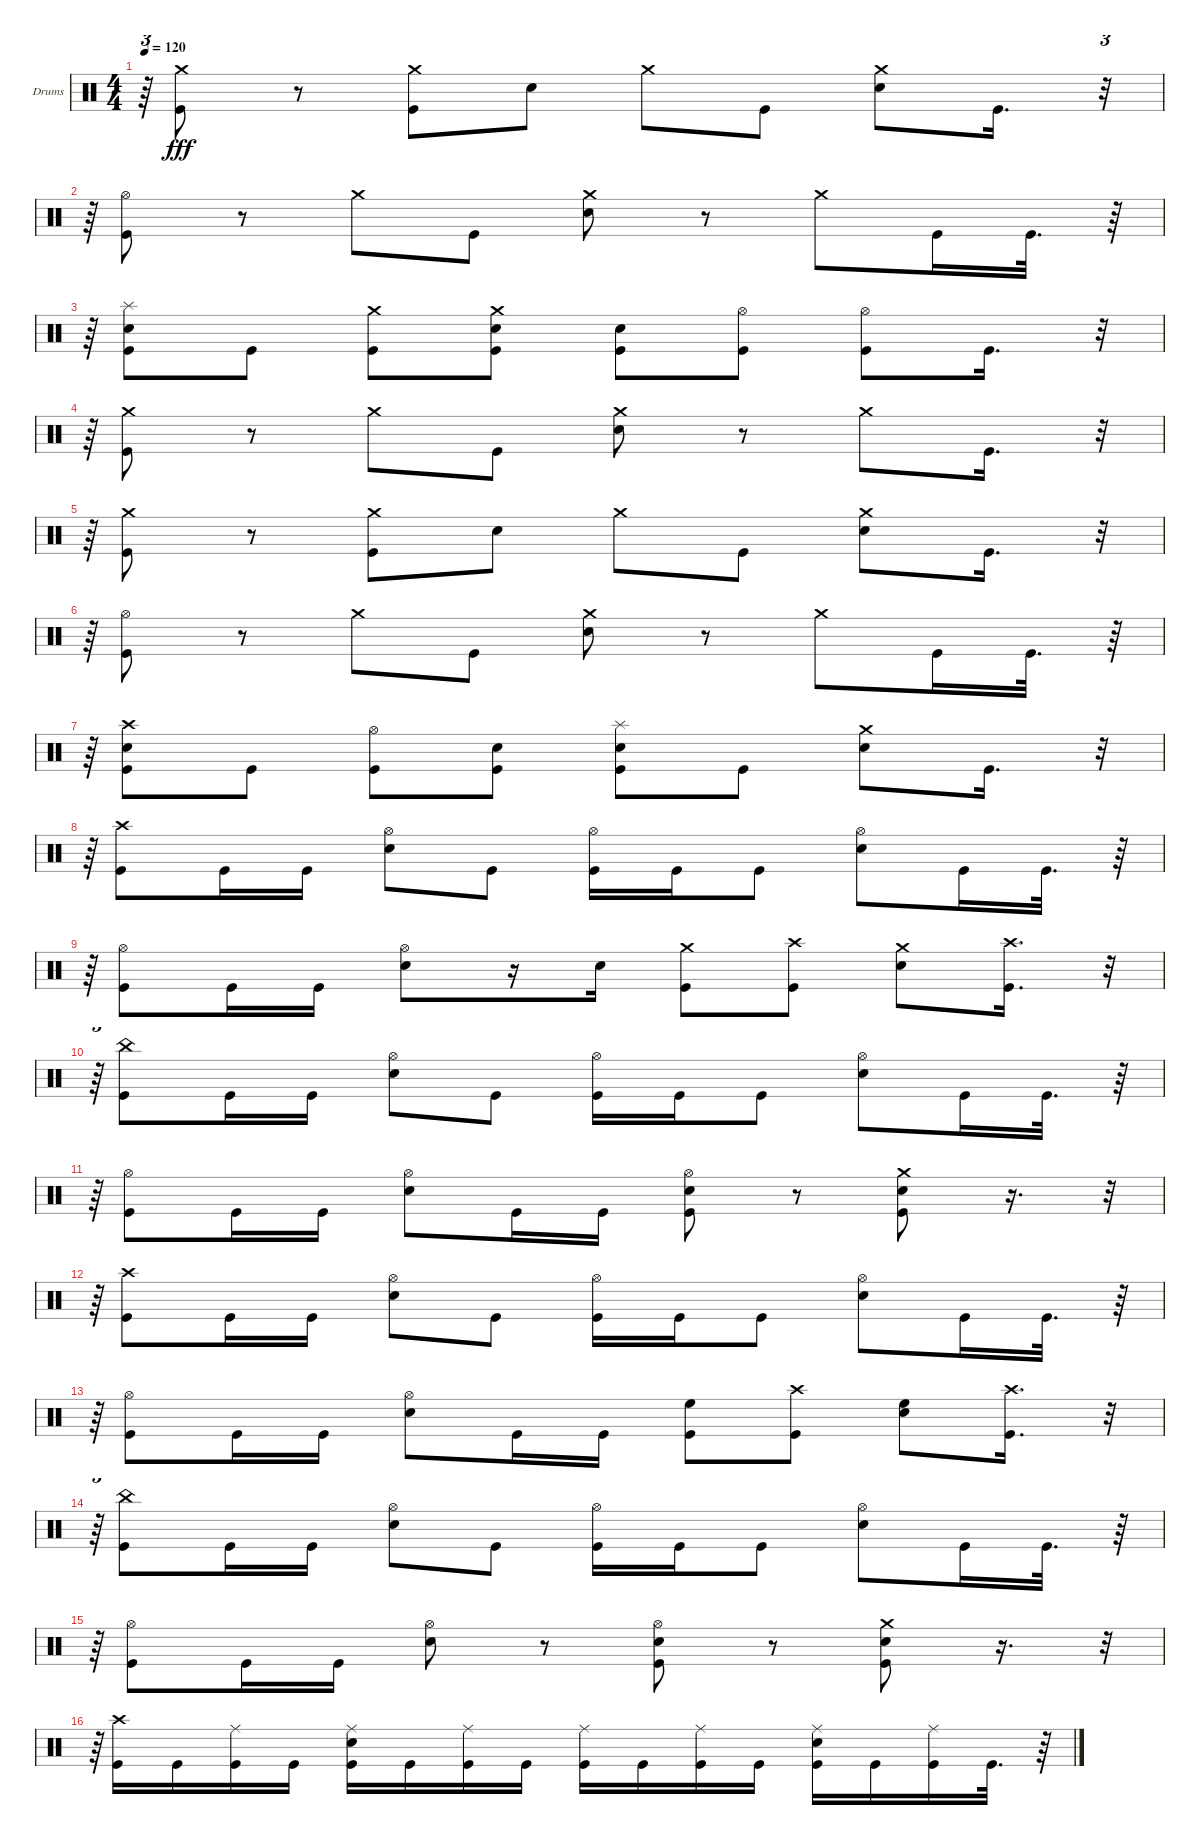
\bracketExtendMode groupsimilarinstruments
\firstSystemTrackNameOrientation horizontal
\otherSystemsTrackNameOrientation horizontal
\track ("Drums" "Drums") {instrument percussion}
\staff {score}
\articulation defaults
\ts (4 4)
\tempo 120
\clef neutral
\ks c
r.64{tu (3 2) dy fff} ("Crash medium (hit)" "Kick (hit)").8 r.8 ("Crash medium (hit)" "Kick (hit)").8 "Snare (hit) 2".8 "Crash medium (hit)".8 "Kick (hit)".8 ("Crash medium (hit)" "Snare (hit) 2").8 "Kick (hit)".16{d} r.32{tu (3 2)} |
r.64{tu (3 2)} ("Hi-Hat (open)" "Kick (hit)").8 r.8 "Crash medium (hit)".8 "Kick (hit)".8 ("Snare (hit) 2" "Crash medium (hit)").8 r.8 "Crash medium (hit)".8 "Kick (hit)".16 "Kick (hit)".32{d} r.64 |
r.64{tu (3 2)} ("Splash (hit)" "Snare (hit) 2" "Kick (hit)").8 "Kick (hit)".8 ("Crash medium (hit)" "Kick (hit)").8 ("Crash medium (hit)" "Snare (hit) 2" "Kick (hit)").8 ("Snare (hit) 2" "Kick (hit)").8 ("Hi-Hat (open)" "Kick (hit)").8 ("Hi-Hat (open)" "Kick (hit)").8 "Kick (hit)".16{d} r.32{tu (3 2)} |
r.64{tu (3 2)} ("Kick (hit)" "Crash medium (hit)").8 r.8 "Crash medium (hit)".8 "Kick (hit)".8 ("Snare (hit) 2" "Crash medium (hit)").8 r.8 "Crash medium (hit)".8 "Kick (hit)".16{d} r.32{tu (3 2)} |
r.64{tu (3 2)} ("Kick (hit)" "Crash medium (hit)").8 r.8 ("Kick (hit)" "Crash medium (hit)").8 "Snare (hit) 2".8 "Crash medium (hit)".8 "Kick (hit)".8 ("Snare (hit) 2" "Crash medium (hit)").8 "Kick (hit)".16{d} r.32{tu (3 2)} |
r.64{tu (3 2)} ("Hi-Hat (open)" "Kick (hit)").8 r.8 "Crash medium (hit)".8 "Kick (hit)".8 ("Crash medium (hit)" "Snare (hit) 2").8 r.8 "Crash medium (hit)".8 "Kick (hit)".16 "Kick (hit)".32{d} r.64 |
r.64{tu (3 2)} ("Kick (hit)" "Snare (hit) 2" "Crash high (hit)").8 "Kick (hit)".8 ("Hi-Hat (open)" "Kick (hit)").8 ("Snare (hit) 2" "Kick (hit)").8 ("Splash (hit)" "Snare (hit) 2" "Kick (hit)").8 "Kick (hit)".8 ("Snare (hit) 2" "Crash medium (hit)").8 "Kick (hit)".16{d} r.32{tu (3 2)} |
r.64{tu (3 2)} ("Kick (hit)" "Crash high (hit)").8 "Kick (hit)".16 "Kick (hit)".16 ("Snare (hit) 2" "Hi-Hat (open)").8 "Kick (hit)".8 ("Kick (hit)" "Hi-Hat (open)").16 "Kick (hit)".16 "Kick (hit)".8 ("Snare (hit) 2" "Hi-Hat (open)").8 "Kick (hit)".16 "Kick (hit)".32{d} r.64 |
r.64{tu (3 2)} ("Hi-Hat (open)" "Kick (hit)").8 "Kick (hit)".16 "Kick (hit)".16 ("Snare (hit) 2" "Hi-Hat (open)").8 r.16 "Snare (hit) 2".16 ("Kick (hit)" "Crash medium (hit)").8 ("Kick (hit)" "Crash high (hit)").8 ("Crash medium (hit)" "Snare (hit) 2").8 ("Kick (hit)" "Crash high (hit)").16{d} r.32{tu (3 2)} |
r.64{tu (3 2)} ("China (hit)" "Kick (hit)").8 "Kick (hit)".16 "Kick (hit)".16 ("Hi-Hat (open)" "Snare (hit) 2").8 "Kick (hit)".8 ("Hi-Hat (open)" "Kick (hit)").16 "Kick (hit)".16 "Kick (hit)".8 ("Hi-Hat (open)" "Snare (hit) 2").8 "Kick (hit)".16 "Kick (hit)".32{d} r.64 |
r.64{tu (3 2)} ("Hi-Hat (open)" "Kick (hit)").8 "Kick (hit)".16 "Kick (hit)".16 ("Hi-Hat (open)" "Snare (hit) 2").8 "Kick (hit)".16 "Kick (hit)".16 ("Kick (hit)" "Snare (hit) 2" "Hi-Hat (open)").8 r.8 ("Crash medium (hit)" "Kick (hit)" "Snare (hit) 2").8 r.16{d} r.32{tu (3 2)} |
r.64{tu (3 2)} ("Crash high (hit)" "Kick (hit)").8 "Kick (hit)".16 "Kick (hit)".16 ("Hi-Hat (open)" "Snare (hit) 2").8 "Kick (hit)".8 ("Hi-Hat (open)" "Kick (hit)").16 "Kick (hit)".16 "Kick (hit)".8 ("Hi-Hat (open)" "Snare (hit) 2").8 "Kick (hit)".16 "Kick (hit)".32{d} r.64 |
r.64{tu (3 2)} ("Hi-Hat (open)" "Kick (hit)").8 "Kick (hit)".16 "Kick (hit)".16 ("Snare (hit) 2" "Hi-Hat (open)").8 "Kick (hit)".16 "Kick (hit)".16 ("High Floor Tom (hit)" "Kick (hit)").8 ("Crash high (hit)" "Kick (hit)").8 ("High Floor Tom (hit)" "Snare (hit) 2").8 ("Crash high (hit)" "Kick (hit)").16{d} r.32{tu (3 2)} |
r.64{tu (3 2)} ("China (hit)" "Kick (hit)").8 "Kick (hit)".16 "Kick (hit)".16 ("Hi-Hat (open)" "Snare (hit) 2").8 "Kick (hit)".8 ("Hi-Hat (open)" "Kick (hit)").16 "Kick (hit)".16 "Kick (hit)".8 ("Hi-Hat (open)" "Snare (hit) 2").8 "Kick (hit)".16 "Kick (hit)".32{d} r.64 |
r.64{tu (3 2)} ("Hi-Hat (open)" "Kick (hit)").8 "Kick (hit)".16 "Kick (hit)".16 ("Hi-Hat (open)" "Snare (hit) 2").8 r.8 ("Kick (hit)" "Snare (hit) 2" "Hi-Hat (open)").8 r.8 ("Crash medium (hit)" "Kick (hit)" "Snare (hit) 2").8 r.16{d} r.32{tu (3 2)} |
r.64{tu (3 2)} ("Crash high (hit)" "Kick (hit)").16 "Kick (hit)".16 ("Kick (hit)" "Ride (middle)").16 "Kick (hit)".16 ("Kick (hit)" "Snare (hit) 2" "Ride (middle)").16 "Kick (hit)".16 ("Kick (hit)" "Ride (middle)").16 "Kick (hit)".16 ("Kick (hit)" "Ride (middle)").16 "Kick (hit)".16 ("Kick (hit)" "Ride (middle)").16 "Kick (hit)".16 ("Kick (hit)" "Snare (hit) 2" "Ride (middle)").16 "Kick (hit)".16 ("Kick (hit)" "Ride (middle)").16 "Kick (hit)".32{d} r.64
